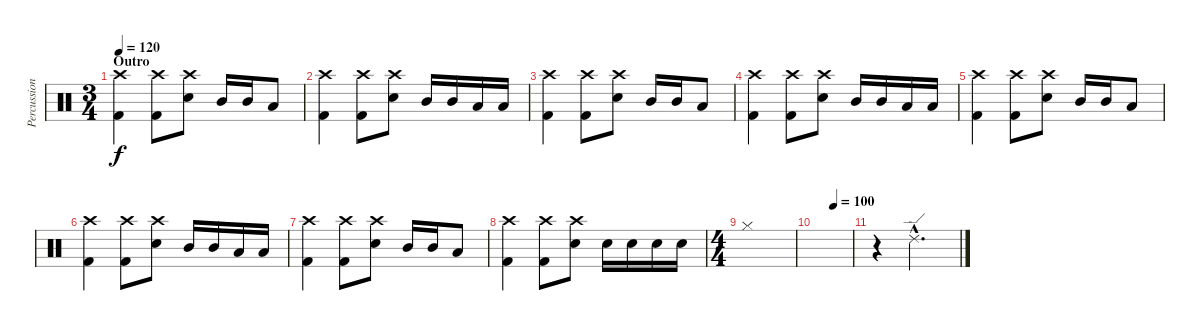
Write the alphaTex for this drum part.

\track ("Percussion" "Percussion") {instrument percussion}
\staff {score}
\articulation defaults
\ts (3 4)
\section ("" "Outro")
\tempo 120
\clef neutral
\ks c
("Crash high (hit)" "Kick (hit) 2").4{dy f} ("Crash high (hit)" "Kick (hit) 2").8 ("Crash high (hit)" "Snare (hit) 2").8 "Mid Tom (hit)".16 "Mid Tom (hit)".16 "Low Tom (hit)".8 |
("Crash high (hit)" "Kick (hit) 2").4 ("Crash high (hit)" "Kick (hit) 2").8 ("Crash high (hit)" "Snare (hit) 2").8 "Mid Tom (hit)".16 "Mid Tom (hit)".16 "Low Tom (hit)".16 "Low Tom (hit)".16 |
("Crash high (hit)" "Kick (hit) 2").4 ("Crash high (hit)" "Kick (hit) 2").8 ("Crash high (hit)" "Snare (hit) 2").8 "Mid Tom (hit)".16 "Mid Tom (hit)".16 "Low Tom (hit)".8 |
("Crash high (hit)" "Kick (hit) 2").4 ("Crash high (hit)" "Kick (hit) 2").8 ("Crash high (hit)" "Snare (hit) 2").8 "Mid Tom (hit)".16 "Mid Tom (hit)".16 "Low Tom (hit)".16 "Low Tom (hit)".16 |
("Crash high (hit)" "Kick (hit) 2").4 ("Crash high (hit)" "Kick (hit) 2").8 ("Crash high (hit)" "Snare (hit) 2").8 "Mid Tom (hit)".16 "Mid Tom (hit)".16 "Low Tom (hit)".8 |
("Crash high (hit)" "Kick (hit) 2").4 ("Crash high (hit)" "Kick (hit) 2").8 ("Crash high (hit)" "Snare (hit) 2").8 "Mid Tom (hit)".16 "Mid Tom (hit)".16 "Low Tom (hit)".16 "Low Tom (hit)".16 |
("Crash high (hit)" "Kick (hit) 2").4 ("Crash high (hit)" "Kick (hit) 2").8 ("Crash high (hit)" "Snare (hit) 2").8 "Mid Tom (hit)".16 "Mid Tom (hit)".16 "Low Tom (hit)".8 |
("Crash high (hit)" "Kick (hit) 2").4 ("Crash high (hit)" "Kick (hit) 2").8 ("Crash high (hit)" "Snare (hit) 2").8 "Snare (hit) 2".16 "Snare (hit) 2".16 "Snare (hit) 2".16 "Snare (hit) 2".16 |
\ts (4 4)
"Hi-Hat (closed)".1 |
\tempo (100 0.5)
|
r.4 "Ride (edge) 2"{hac}.2{d}
